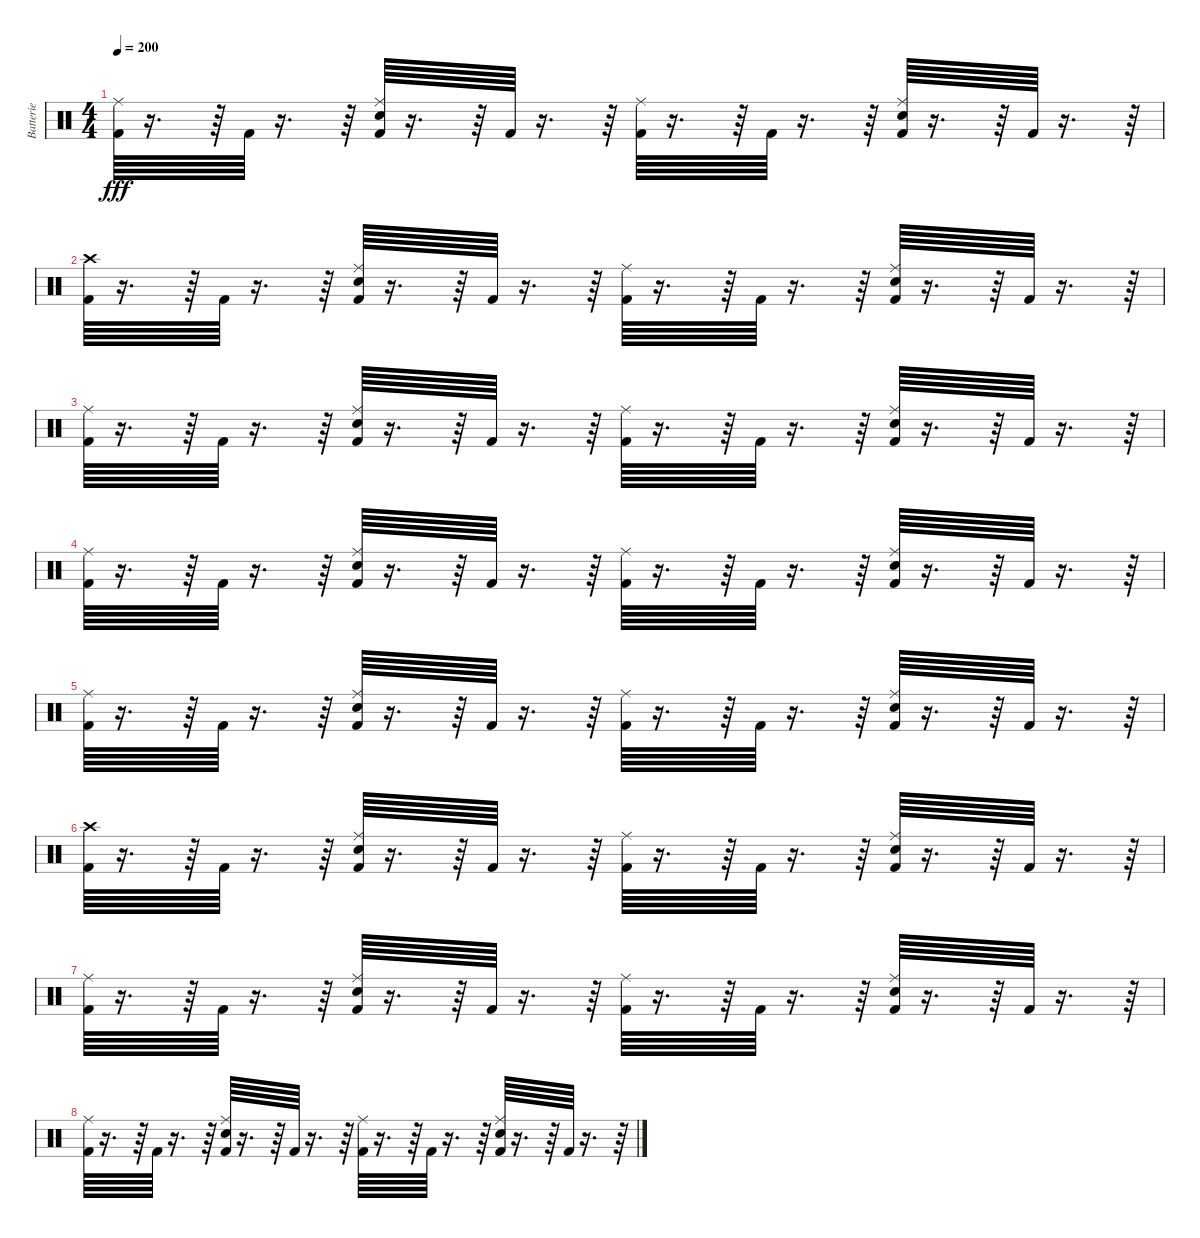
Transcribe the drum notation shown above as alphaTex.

\track ("Batterie" "Batterie") {instrument percussion}
\staff {score}
\articulation defaults
\ts (4 4)
\tempo 200
\clef neutral
\ks c
("Kick (hit) 2" "Ride (middle)").64{dy fff} r.16{d} r.64 "Kick (hit) 2".64 r.16{d} r.64 ("Kick (hit) 2" "Snare (hit) 2" "Ride (middle)").64 r.16{d} r.64 "Kick (hit) 2".64 r.16{d} r.64 ("Kick (hit) 2" "Ride (middle)").64 r.16{d} r.64 "Kick (hit) 2".64 r.16{d} r.64 ("Kick (hit) 2" "Snare (hit) 2" "Ride (middle)").64 r.16{d} r.64 "Kick (hit) 2".64 r.16{d} r.64 |
("Kick (hit) 2" "Crash high (hit)").64 r.16{d} r.64 "Kick (hit) 2".64 r.16{d} r.64 ("Kick (hit) 2" "Snare (hit) 2" "Ride (middle)").64 r.16{d} r.64 "Kick (hit) 2".64 r.16{d} r.64 ("Kick (hit) 2" "Ride (middle)").64 r.16{d} r.64 "Kick (hit) 2".64 r.16{d} r.64 ("Kick (hit) 2" "Snare (hit) 2" "Ride (middle)").64 r.16{d} r.64 "Kick (hit) 2".64 r.16{d} r.64 |
("Kick (hit) 2" "Ride (middle)").64 r.16{d} r.64 "Kick (hit) 2".64 r.16{d} r.64 ("Kick (hit) 2" "Snare (hit) 2" "Ride (middle)").64 r.16{d} r.64 "Kick (hit) 2".64 r.16{d} r.64 ("Kick (hit) 2" "Ride (middle)").64 r.16{d} r.64 "Kick (hit) 2".64 r.16{d} r.64 ("Kick (hit) 2" "Snare (hit) 2" "Ride (middle)").64 r.16{d} r.64 "Kick (hit) 2".64 r.16{d} r.64 |
("Kick (hit) 2" "Ride (middle)").64 r.16{d} r.64 "Kick (hit) 2".64 r.16{d} r.64 ("Kick (hit) 2" "Snare (hit) 2" "Ride (middle)").64 r.16{d} r.64 "Kick (hit) 2".64 r.16{d} r.64 ("Kick (hit) 2" "Ride (middle)").64 r.16{d} r.64 "Kick (hit) 2".64 r.16{d} r.64 ("Kick (hit) 2" "Snare (hit) 2" "Ride (middle)").64 r.16{d} r.64 "Kick (hit) 2".64 r.16{d} r.64 |
("Kick (hit) 2" "Ride (middle)").64 r.16{d} r.64 "Kick (hit) 2".64 r.16{d} r.64 ("Kick (hit) 2" "Snare (hit) 2" "Ride (middle)").64 r.16{d} r.64 "Kick (hit) 2".64 r.16{d} r.64 ("Kick (hit) 2" "Ride (middle)").64 r.16{d} r.64 "Kick (hit) 2".64 r.16{d} r.64 ("Kick (hit) 2" "Snare (hit) 2" "Ride (middle)").64 r.16{d} r.64 "Kick (hit) 2".64 r.16{d} r.64 |
("Kick (hit) 2" "Crash high (hit)").64 r.16{d} r.64 "Kick (hit) 2".64 r.16{d} r.64 ("Kick (hit) 2" "Snare (hit) 2" "Ride (middle)").64 r.16{d} r.64 "Kick (hit) 2".64 r.16{d} r.64 ("Kick (hit) 2" "Ride (middle)").64 r.16{d} r.64 "Kick (hit) 2".64 r.16{d} r.64 ("Kick (hit) 2" "Snare (hit) 2" "Ride (middle)").64 r.16{d} r.64 "Kick (hit) 2".64 r.16{d} r.64 |
("Kick (hit) 2" "Ride (middle)").64 r.16{d} r.64 "Kick (hit) 2".64 r.16{d} r.64 ("Kick (hit) 2" "Snare (hit) 2" "Ride (middle)").64 r.16{d} r.64 "Kick (hit) 2".64 r.16{d} r.64 ("Kick (hit) 2" "Ride (middle)").64 r.16{d} r.64 "Kick (hit) 2".64 r.16{d} r.64 ("Kick (hit) 2" "Snare (hit) 2" "Ride (middle)").64 r.16{d} r.64 "Kick (hit) 2".64 r.16{d} r.64 |
("Kick (hit) 2" "Ride (middle)").64 r.16{d} r.64 "Kick (hit) 2".64 r.16{d} r.64 ("Kick (hit) 2" "Snare (hit) 2" "Ride (middle)").64 r.16{d} r.64 "Kick (hit) 2".64 r.16{d} r.64 ("Kick (hit) 2" "Ride (middle)").64 r.16{d} r.64 "Kick (hit) 2".64 r.16{d} r.64 ("Kick (hit) 2" "Snare (hit) 2" "Ride (middle)").64 r.16{d} r.64 "Kick (hit) 2".64 r.16{d} r.64
